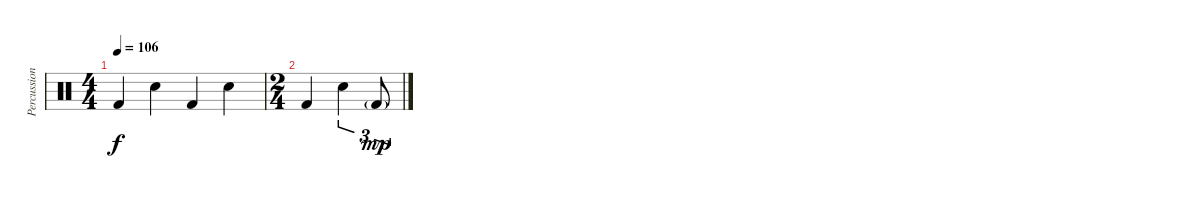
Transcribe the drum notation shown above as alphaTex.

\track ("Percussion" "Percussion") {instrument percussion}
\staff {score}
\articulation defaults
\ts (4 4)
\tempo 106
\clef neutral
\ks c "Kick (hit) 2".4{dy f} "Snare (hit) 2".4 "Kick (hit) 2".4 "Snare (hit) 2".4
|
\ts (2 4)
"Kick (hit) 2".4 "Snare (hit) 2".4{tu (3 2)} "Kick (hit) 2"{g}.8{tu (3 2) dy mp}
